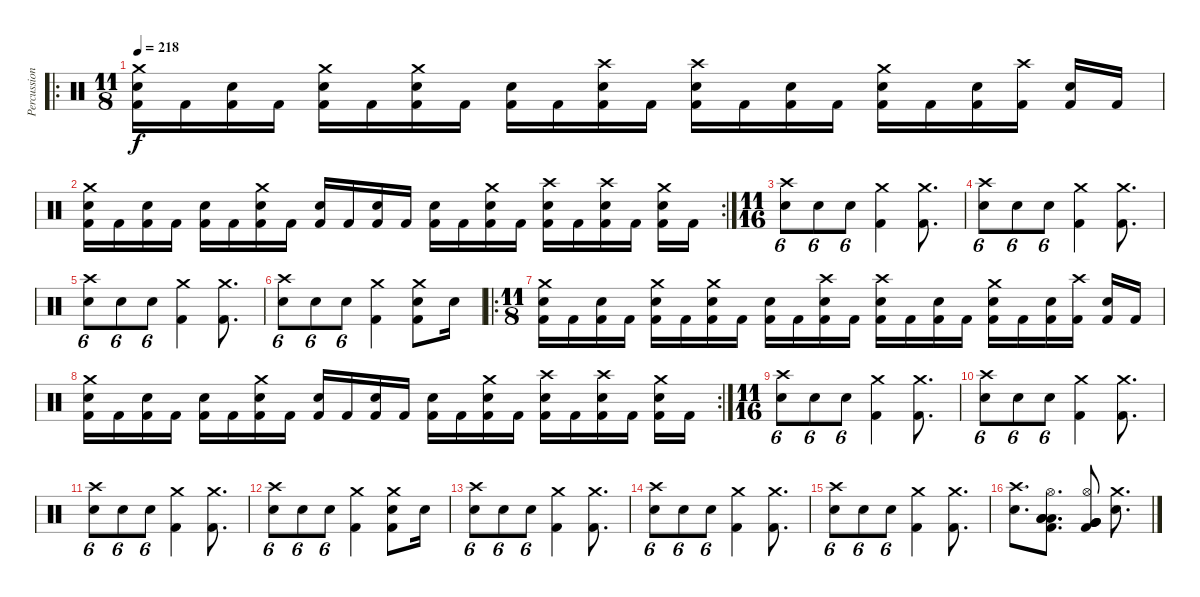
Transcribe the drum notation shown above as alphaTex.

\track ("Percussions" "Percussion") {instrument percussion}
\staff {score}
\articulation defaults
\ro
\ts (11 8)
\tempo 218
\tempo 200
\tempo 218
\clef neutral
\ks c
("Crash medium (hit)" "Electric Snare (hit)" "Kick (hit) 2").16{dy f} "Kick (hit) 2".16 ("Electric Snare (hit)" "Kick (hit) 2").16 "Kick (hit) 2".16 ("Crash medium (hit)" "Electric Snare (hit)" "Kick (hit) 2").16 "Kick (hit) 2".16 ("Crash medium (hit)" "Electric Snare (hit)" "Kick (hit) 2").16 "Kick (hit) 2".16 ("Electric Snare (hit)" "Kick (hit) 2").16 "Kick (hit) 2".16 ("Crash high (hit)" "Electric Snare (hit)" "Kick (hit) 2").16 "Kick (hit) 2".16 ("Crash high (hit)" "Electric Snare (hit)" "Kick (hit) 2").16 "Kick (hit) 2".16 ("Electric Snare (hit)" "Kick (hit) 2").16 "Kick (hit) 2".16 ("Crash medium (hit)" "Electric Snare (hit)" "Kick (hit) 2").16 "Kick (hit) 2".16 ("Electric Snare (hit)" "Kick (hit) 2").16 ("Crash high (hit)" "Kick (hit) 2").16 ("Electric Snare (hit)" "Kick (hit) 2").16 "Kick (hit) 2".16 |
\rc 2
("Crash medium (hit)" "Electric Snare (hit)" "Kick (hit) 2").16 "Kick (hit) 2".16 ("Electric Snare (hit)" "Kick (hit) 2").16 "Kick (hit) 2".16 ("Electric Snare (hit)" "Kick (hit) 2").16 "Kick (hit) 2".16 ("Crash medium (hit)" "Electric Snare (hit)" "Kick (hit) 2").16 "Kick (hit) 2".16 ("Electric Snare (hit)" "Kick (hit) 2").16 "Kick (hit) 2".16 ("Electric Snare (hit)" "Kick (hit) 2").16 "Kick (hit) 2".16 ("Electric Snare (hit)" "Kick (hit) 2").16 "Kick (hit) 2".16 ("Crash medium (hit)" "Electric Snare (hit)" "Kick (hit) 2").16 "Kick (hit) 2".16 ("Crash high (hit)" "Electric Snare (hit)" "Kick (hit) 2").16 "Kick (hit) 2".16 ("Crash high (hit)" "Electric Snare (hit)" "Kick (hit) 2").16 "Kick (hit) 2".16 ("Crash medium (hit)" "Electric Snare (hit)" "Kick (hit) 2").16 "Kick (hit) 2".16 |
\ts (11 16)
("Crash high (hit)" "Electric Snare (hit)").8{tu (6 4)} "Electric Snare (hit)".8{tu (6 4)} "Electric Snare (hit)".8{tu (6 4)} ("Crash medium (hit)" "Kick (hit) 2").4 ("Crash medium (hit)" "Kick (hit) 2").8{d} |
("Crash high (hit)" "Electric Snare (hit)").8{tu (6 4)} "Electric Snare (hit)".8{tu (6 4)} "Electric Snare (hit)".8{tu (6 4)} ("Crash medium (hit)" "Kick (hit) 2").4 ("Crash medium (hit)" "Kick (hit) 2").8{d} |
("Crash high (hit)" "Electric Snare (hit)").8{tu (6 4)} "Electric Snare (hit)".8{tu (6 4)} "Electric Snare (hit)".8{tu (6 4)} ("Crash medium (hit)" "Kick (hit) 2").4 ("Crash medium (hit)" "Kick (hit) 2").8{d} |
("Crash high (hit)" "Electric Snare (hit)").8{tu (6 4)} "Electric Snare (hit)".8{tu (6 4)} "Electric Snare (hit)".8{tu (6 4)} ("Crash medium (hit)" "Kick (hit) 2").4 ("Crash medium (hit)" "Electric Snare (hit)" "Kick (hit) 2").8 "Electric Snare (hit)".16 |
\ro
\ts (11 8)
("Crash medium (hit)" "Electric Snare (hit)" "Kick (hit) 2").16 "Kick (hit) 2".16 ("Electric Snare (hit)" "Kick (hit) 2").16 "Kick (hit) 2".16 ("Crash medium (hit)" "Electric Snare (hit)" "Kick (hit) 2").16 "Kick (hit) 2".16 ("Crash medium (hit)" "Electric Snare (hit)" "Kick (hit) 2").16 "Kick (hit) 2".16 ("Electric Snare (hit)" "Kick (hit) 2").16 "Kick (hit) 2".16 ("Crash high (hit)" "Electric Snare (hit)" "Kick (hit) 2").16 "Kick (hit) 2".16 ("Crash high (hit)" "Electric Snare (hit)" "Kick (hit) 2").16 "Kick (hit) 2".16 ("Electric Snare (hit)" "Kick (hit) 2").16 "Kick (hit) 2".16 ("Crash medium (hit)" "Electric Snare (hit)" "Kick (hit) 2").16 "Kick (hit) 2".16 ("Electric Snare (hit)" "Kick (hit) 2").16 ("Crash high (hit)" "Kick (hit) 2").16 ("Electric Snare (hit)" "Kick (hit) 2").16 "Kick (hit) 2".16 |
\rc 2
("Crash medium (hit)" "Electric Snare (hit)" "Kick (hit) 2").16 "Kick (hit) 2".16 ("Electric Snare (hit)" "Kick (hit) 2").16 "Kick (hit) 2".16 ("Electric Snare (hit)" "Kick (hit) 2").16 "Kick (hit) 2".16 ("Crash medium (hit)" "Electric Snare (hit)" "Kick (hit) 2").16 "Kick (hit) 2".16 ("Electric Snare (hit)" "Kick (hit) 2").16 "Kick (hit) 2".16 ("Electric Snare (hit)" "Kick (hit) 2").16 "Kick (hit) 2".16 ("Electric Snare (hit)" "Kick (hit) 2").16 "Kick (hit) 2".16 ("Crash medium (hit)" "Electric Snare (hit)" "Kick (hit) 2").16 "Kick (hit) 2".16 ("Crash high (hit)" "Electric Snare (hit)" "Kick (hit) 2").16 "Kick (hit) 2".16 ("Crash high (hit)" "Electric Snare (hit)" "Kick (hit) 2").16 "Kick (hit) 2".16 ("Crash medium (hit)" "Electric Snare (hit)" "Kick (hit) 2").16 "Kick (hit) 2".16 |
\ts (11 16)
("Crash high (hit)" "Electric Snare (hit)").8{tu (6 4)} "Electric Snare (hit)".8{tu (6 4)} "Electric Snare (hit)".8{tu (6 4)} ("Crash medium (hit)" "Kick (hit) 2").4 ("Crash medium (hit)" "Kick (hit) 2").8{d} |
("Crash high (hit)" "Electric Snare (hit)").8{tu (6 4)} "Electric Snare (hit)".8{tu (6 4)} "Electric Snare (hit)".8{tu (6 4)} ("Crash medium (hit)" "Kick (hit) 2").4 ("Crash medium (hit)" "Kick (hit) 2").8{d} |
("Crash high (hit)" "Electric Snare (hit)").8{tu (6 4)} "Electric Snare (hit)".8{tu (6 4)} "Electric Snare (hit)".8{tu (6 4)} ("Crash medium (hit)" "Kick (hit) 2").4 ("Crash medium (hit)" "Kick (hit) 2").8{d} |
("Crash high (hit)" "Electric Snare (hit)").8{tu (6 4)} "Electric Snare (hit)".8{tu (6 4)} "Electric Snare (hit)".8{tu (6 4)} ("Crash medium (hit)" "Kick (hit) 2").4 ("Crash medium (hit)" "Electric Snare (hit)" "Kick (hit) 2").8 "Electric Snare (hit)".16 |
("Crash high (hit)" "Electric Snare (hit)").8{tu (6 4)} "Electric Snare (hit)".8{tu (6 4)} "Electric Snare (hit)".8{tu (6 4)} ("Crash medium (hit)" "Kick (hit) 2").4 ("Crash medium (hit)" "Kick (hit) 2").8{d} |
("Crash high (hit)" "Electric Snare (hit)").8{tu (6 4)} "Electric Snare (hit)".8{tu (6 4)} "Electric Snare (hit)".8{tu (6 4)} ("Crash medium (hit)" "Kick (hit) 2").4 ("Crash medium (hit)" "Kick (hit) 2").8{d} |
("Crash high (hit)" "Electric Snare (hit)").8{tu (6 4)} "Electric Snare (hit)".8{tu (6 4)} "Electric Snare (hit)".8{tu (6 4)} ("Crash medium (hit)" "Kick (hit) 2").4 ("Crash medium (hit)" "Kick (hit) 2").8{d} |
("Crash high (hit)" "Electric Snare (hit)").8{d} ("Hi-Hat (open)" "Low Tom (hit)" "Low Tom (hit)" "Low Tom (hit)" "Kick (hit) 2").8{d} ("Hi-Hat (open)" "Very Low Tom (hit)" "Very Low Tom (hit)" "Very Low Tom (hit)" "Kick (hit) 2").8 ("Crash medium (hit)" "Electric Snare (hit)").8{d}
